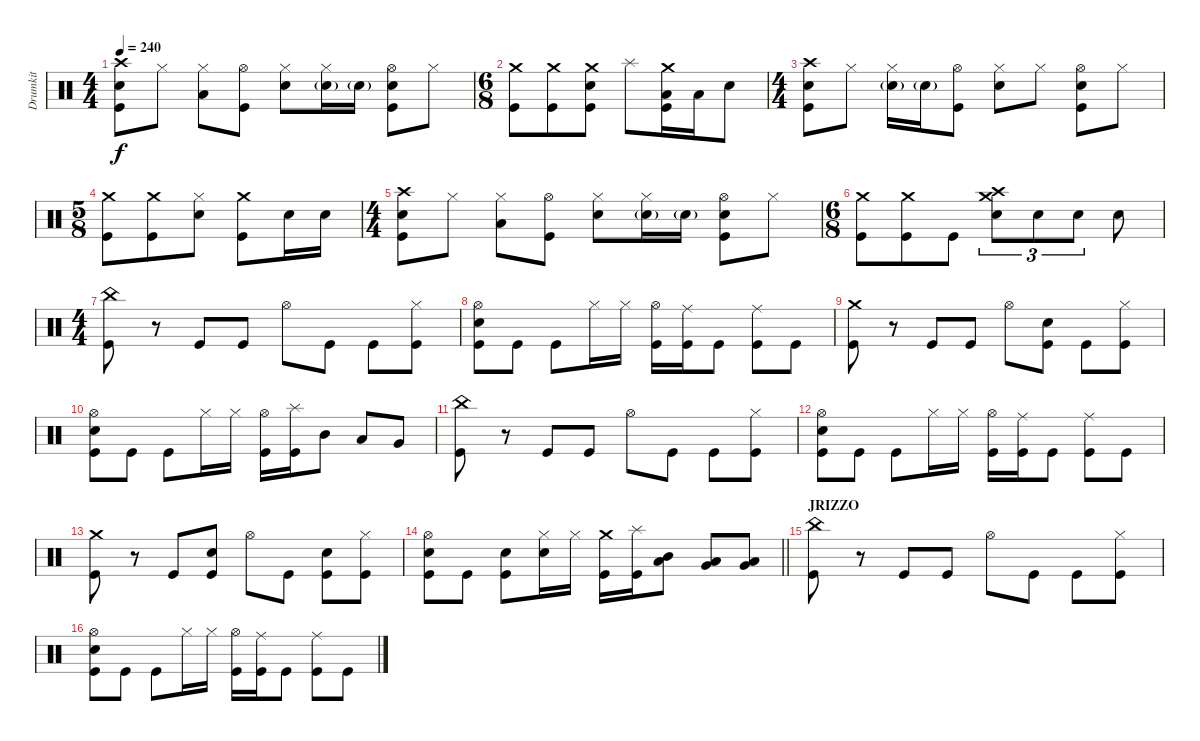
\track ("Drumkit" "Drumkit") {instrument percussion}
\staff {score}
\articulation defaults
\ts (4 4)
\tempo 240
\clef neutral
\ks c
("Crash high (hit)" "Snare (hit) 2" "Kick (hit)").8{dy f} "Hi-Hat (closed)".8 ("Hi-Hat (closed)" "Low Floor Tom (hit)").8 ("Hi-Hat (open)" "Kick (hit)").8 ("Hi-Hat (closed)" "Snare (hit) 2").8 ("Hi-Hat (closed)" "Snare (hit) 2"{g}).16 "Snare (hit) 2"{g}.16 ("Hi-Hat (open)" "Snare (hit) 2" "Kick (hit)").8 "Hi-Hat (closed)".8 |
\ts (6 8)
("Crash medium (hit)" "Kick (hit)").8 ("Crash medium (hit)" "Kick (hit)").8 ("Crash medium (hit)" "Snare (hit) 2" "Kick (hit)").8 "Splash (hit)".8 ("Crash medium (hit)" "Low Tom (hit)" "Kick (hit)").16 "Low Tom (hit)".16 "Snare (hit) 2".8 |
\ts (4 4)
("Crash high (hit)" "Snare (hit) 2" "Kick (hit)").8 "Hi-Hat (closed)".8 ("Hi-Hat (closed)" "Snare (hit) 2"{g}).16 "Snare (hit) 2"{g}.16 ("Hi-Hat (open)" "Kick (hit)").8 ("Hi-Hat (closed)" "Snare (hit) 2").8 "Hi-Hat (closed)".8 ("Hi-Hat (open)" "Snare (hit) 2" "Kick (hit)").8 "Hi-Hat (closed)".8 |
\ts (5 8)
("Crash medium (hit)" "Kick (hit)").8 ("Crash medium (hit)" "Kick (hit)").8 ("Hi-Hat (closed)" "Snare (hit) 2").8 ("Crash medium (hit)" "Kick (hit)").8 "Snare (hit) 2".16 "Snare (hit) 2".16 |
\ts (4 4)
("Crash high (hit)" "Snare (hit) 2" "Kick (hit)").8 "Hi-Hat (closed)".8 ("Hi-Hat (closed)" "Low Floor Tom (hit)").8 ("Hi-Hat (open)" "Kick (hit)").8 ("Hi-Hat (closed)" "Snare (hit) 2").8 ("Hi-Hat (closed)" "Snare (hit) 2"{g}).16 "Snare (hit) 2"{g}.16 ("Hi-Hat (open)" "Snare (hit) 2" "Kick (hit)").8 "Hi-Hat (closed)".8 |
\ts (6 8)
("Crash medium (hit)" "Kick (hit)").8 ("Crash medium (hit)" "Kick (hit)").8 "Kick (hit)".8 ("Crash high (hit)" "Crash medium (hit)" "Snare (hit) 2").8{tu (3 2)} "Snare (hit) 2".8{tu (3 2)} "Snare (hit) 2".8{tu (3 2)} "Snare (hit) 2".8 |
\ts (4 4)
("China (hit)" "Kick (hit)").8 r.8 "Kick (hit)".8 "Kick (hit)".8 "Hi-Hat (open)".8 "Kick (hit)".8 "Kick (hit)".8 ("Hi-Hat (closed)" "Kick (hit)").8 |
("Hi-Hat (open)" "Snare (hit) 2" "Kick (hit)").8 "Kick (hit)".8 "Kick (hit)".8 "Hi-Hat (closed)".16 "Hi-Hat (closed)".16 ("Hi-Hat (open)" "Kick (hit)").16 ("Ride (middle)" "Kick (hit)").16 "Kick (hit)".8 ("Ride (middle)" "Kick (hit)").8 "Kick (hit)".8 |
("Crash medium (hit)" "Kick (hit)").8 r.8 "Kick (hit)".8 "Kick (hit)".8 "Hi-Hat (open)".8 ("Snare (hit) 2" "Kick (hit)").8 "Kick (hit)".8 ("Hi-Hat (closed)" "Kick (hit)").8 |
("Hi-Hat (open)" "Snare (hit) 2" "Kick (hit)").8 "Kick (hit)".8 "Kick (hit)".8 "Hi-Hat (closed)".16 "Hi-Hat (closed)".16 ("Hi-Hat (open)" "Kick (hit)").16 ("Splash (hit)" "Kick (hit)").16 "Mid Tom (hit)".8 "Low Tom (hit)".8 "Very Low Tom (hit)".8 |
("China (hit)" "Kick (hit)").8 r.8 "Kick (hit)".8 "Kick (hit)".8 "Hi-Hat (open)".8 "Kick (hit)".8 "Kick (hit)".8 ("Hi-Hat (closed)" "Kick (hit)").8 |
("Hi-Hat (open)" "Snare (hit) 2" "Kick (hit)").8 "Kick (hit)".8 "Kick (hit)".8 "Hi-Hat (closed)".16 "Hi-Hat (closed)".16 ("Hi-Hat (open)" "Kick (hit)").16 ("Ride (middle)" "Kick (hit)").16 "Kick (hit)".8 ("Ride (middle)" "Kick (hit)").8 "Kick (hit)".8 |
("Crash medium (hit)" "Kick (hit)").8 r.8 "Kick (hit)".8 ("Snare (hit) 2" "Kick (hit)").8 "Hi-Hat (open)".8 "Kick (hit)".8 ("Snare (hit) 2" "Kick (hit)").8 ("Hi-Hat (closed)" "Kick (hit)").8 |
\barLineRight lightlight
("Hi-Hat (open)" "Snare (hit) 2" "Kick (hit)").8 "Kick (hit)".8 ("Snare (hit) 2" "Kick (hit)").8 ("Hi-Hat (closed)" "Snare (hit) 2").16 "Hi-Hat (closed)".16 ("Crash medium (hit)" "Kick (hit)").16 ("Splash (hit)" "Kick (hit)").16 ("Mid Tom (hit)" "Low Tom (hit)").8 ("Low Tom (hit)" "Very Low Tom (hit)").8 ("Very Low Tom (hit)" "Low Floor Tom (hit)").8 |
\section ("" "JRIZZO")
("China (hit)" "Kick (hit)").8 r.8 "Kick (hit)".8 "Kick (hit)".8 "Hi-Hat (open)".8 "Kick (hit)".8 "Kick (hit)".8 ("Hi-Hat (closed)" "Kick (hit)").8 |
("Hi-Hat (open)" "Snare (hit) 2" "Kick (hit)").8 "Kick (hit)".8 "Kick (hit)".8 "Hi-Hat (closed)".16 "Hi-Hat (closed)".16 ("Hi-Hat (open)" "Kick (hit)").16 ("Ride (middle)" "Kick (hit)").16 "Kick (hit)".8 ("Ride (middle)" "Kick (hit)").8 "Kick (hit)".8
